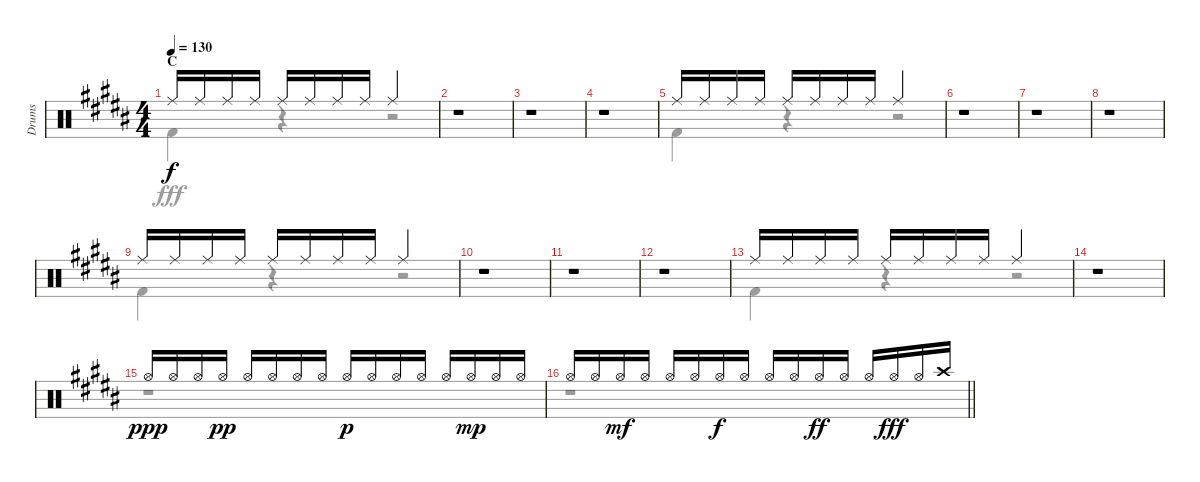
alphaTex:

\track ("Drums" "Drums") {instrument percussion}
\staff {score}
\articulation defaults
\voice
\ts (4 4)
\section ("" "C")
\tempo 130
\clef neutral
\ks b "Ride (middle)".16{dy f} "Ride (middle)".16 "Ride (middle)".16 "Ride (middle)".16 "Ride (middle)".16 "Ride (middle)".16 "Ride (middle)".16 "Ride (middle)".16 "Ride (middle)".2
|
r.1 |
r.1 |
r.1 |
"Ride (middle)".16 "Ride (middle)".16 "Ride (middle)".16 "Ride (middle)".16 "Ride (middle)".16 "Ride (middle)".16 "Ride (middle)".16 "Ride (middle)".16 "Ride (middle)".2 |
r.1 |
r.1 |
r.1 |
"Ride (middle)".16 "Ride (middle)".16 "Ride (middle)".16 "Ride (middle)".16 "Ride (middle)".16 "Ride (middle)".16 "Ride (middle)".16 "Ride (middle)".16 "Ride (middle)".2 |
r.1 |
r.1 |
r.1 |
"Ride (middle)".16 "Ride (middle)".16 "Ride (middle)".16 "Ride (middle)".16 "Ride (middle)".16 "Ride (middle)".16 "Ride (middle)".16 "Ride (middle)".16 "Ride (middle)".2 |
r.1 |
"Hi-Hat (open)".16{dy ppp} "Hi-Hat (open)".16 "Hi-Hat (open)".16 "Hi-Hat (open)".16{dy pp} "Hi-Hat (open)".16 "Hi-Hat (open)".16 "Hi-Hat (open)".16 "Hi-Hat (open)".16 "Hi-Hat (open)".16{dy p} "Hi-Hat (open)".16 "Hi-Hat (open)".16 "Hi-Hat (open)".16 "Hi-Hat (open)".16 "Hi-Hat (open)".16{dy mp} "Hi-Hat (open)".16 "Hi-Hat (open)".16 |
\barLineRight lightlight "Hi-Hat (open)".16 "Hi-Hat (open)".16 "Hi-Hat (open)".16{dy mf} "Hi-Hat (open)".16 "Hi-Hat (open)".16 "Hi-Hat (open)".16 "Hi-Hat (open)".16{dy f} "Hi-Hat (open)".16 "Hi-Hat (open)".16 "Hi-Hat (open)".16 "Hi-Hat (open)".16{dy ff} "Hi-Hat (open)".16 "Hi-Hat (open)".16 "Hi-Hat (open)".16{dy fff} "Hi-Hat (open)".16 "Crash high (hit)".16
\voice
\clef neutral
\ottava regular
\simile none
\ks b "Kick (hit) 2".4{dy fff}
r.4 r.2 |
r.1 |
r.1 |
r.1 |
"Kick (hit) 2".4 r.4 r.2 |
r.1 |
r.1 |
r.1 |
"Kick (hit) 2".4 r.4 r.2 |
r.1 |
r.1 |
r.1 |
"Kick (hit) 2".4 r.4 r.2 |
r.1 |
r.1 |
\barLineRight lightlight
r.1
